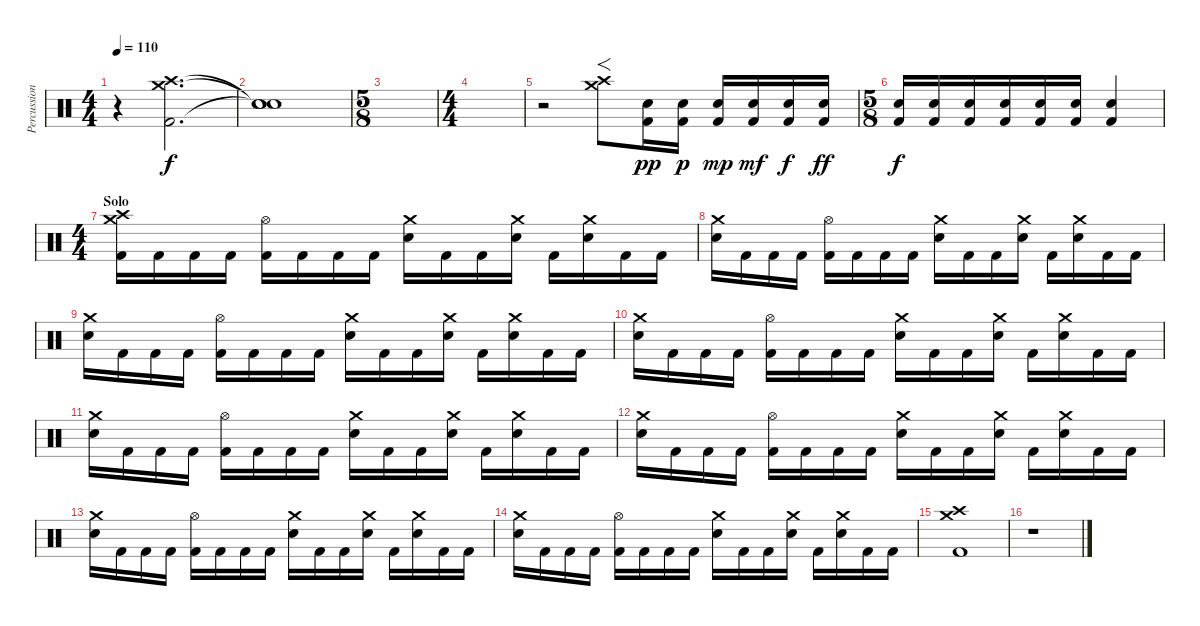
\track ("Percussion" "Percussion") {instrument percussion}
\staff {score}
\articulation defaults
\ts (4 4)
\tempo 110
\clef neutral
\ks c
r.4{dy f} ("Crash high (hit)" "Crash medium (hit)" "Kick (hit) 2").2{d} |
("Snare (hit)"{t} "Snare (hit)"{t} "Snare (hit)"{t}).1 |
\ts (5 8)
|
\ts (4 4)
|
r.2 ("Crash medium (hit)" "Crash high (hit)").8{f} ("Electric Snare (hit)" "Kick (hit) 2").16{dy pp} ("Electric Snare (hit)" "Kick (hit) 2").16{dy p} ("Electric Snare (hit)" "Kick (hit) 2").16{dy mp} ("Electric Snare (hit)" "Kick (hit) 2").16{dy mf} ("Electric Snare (hit)" "Kick (hit) 2").16{dy f} ("Electric Snare (hit)" "Kick (hit) 2").16{dy ff} |
\ts (5 8)
("Electric Snare (hit)" "Kick (hit) 2").16{dy f} ("Electric Snare (hit)" "Kick (hit) 2").16 ("Electric Snare (hit)" "Kick (hit) 2").16 ("Electric Snare (hit)" "Kick (hit) 2").16 ("Electric Snare (hit)" "Kick (hit) 2").16 ("Electric Snare (hit)" "Kick (hit) 2").16 ("Electric Snare (hit)" "Kick (hit) 2").4 |
\ts (4 4)
\section ("" "Solo")
("Crash medium (hit)" "Crash high (hit)" "Kick (hit) 2").16 "Kick (hit) 2".16 "Kick (hit) 2".16 "Kick (hit) 2".16 ("Hi-Hat (open)" "Kick (hit) 2").16 "Kick (hit) 2".16 "Kick (hit) 2".16 "Kick (hit) 2".16 ("Crash medium (hit)" "Electric Snare (hit)").16 "Kick (hit) 2".16 "Kick (hit) 2".16 ("Crash medium (hit)" "Electric Snare (hit)").16 "Kick (hit) 2".16 ("Crash medium (hit)" "Electric Snare (hit)").16 "Kick (hit) 2".16 "Kick (hit) 2".16 |
("Crash medium (hit)" "Electric Snare (hit)").16 "Kick (hit) 2".16 "Kick (hit) 2".16 "Kick (hit) 2".16 ("Hi-Hat (open)" "Kick (hit) 2").16 "Kick (hit) 2".16 "Kick (hit) 2".16 "Kick (hit) 2".16 ("Crash medium (hit)" "Electric Snare (hit)").16 "Kick (hit) 2".16 "Kick (hit) 2".16 ("Crash medium (hit)" "Electric Snare (hit)").16 "Kick (hit) 2".16 ("Crash medium (hit)" "Electric Snare (hit)").16 "Kick (hit) 2".16 "Kick (hit) 2".16 |
("Crash medium (hit)" "Electric Snare (hit)").16 "Kick (hit) 2".16 "Kick (hit) 2".16 "Kick (hit) 2".16 ("Hi-Hat (open)" "Kick (hit) 2").16 "Kick (hit) 2".16 "Kick (hit) 2".16 "Kick (hit) 2".16 ("Crash medium (hit)" "Electric Snare (hit)").16 "Kick (hit) 2".16 "Kick (hit) 2".16 ("Crash medium (hit)" "Electric Snare (hit)").16 "Kick (hit) 2".16 ("Crash medium (hit)" "Electric Snare (hit)").16 "Kick (hit) 2".16 "Kick (hit) 2".16 |
("Crash medium (hit)" "Electric Snare (hit)").16 "Kick (hit) 2".16 "Kick (hit) 2".16 "Kick (hit) 2".16 ("Hi-Hat (open)" "Kick (hit) 2").16 "Kick (hit) 2".16 "Kick (hit) 2".16 "Kick (hit) 2".16 ("Crash medium (hit)" "Electric Snare (hit)").16 "Kick (hit) 2".16 "Kick (hit) 2".16 ("Crash medium (hit)" "Electric Snare (hit)").16 "Kick (hit) 2".16 ("Crash medium (hit)" "Electric Snare (hit)").16 "Kick (hit) 2".16 "Kick (hit) 2".16 |
("Crash medium (hit)" "Electric Snare (hit)").16 "Kick (hit) 2".16 "Kick (hit) 2".16 "Kick (hit) 2".16 ("Hi-Hat (open)" "Kick (hit) 2").16 "Kick (hit) 2".16 "Kick (hit) 2".16 "Kick (hit) 2".16 ("Crash medium (hit)" "Electric Snare (hit)").16 "Kick (hit) 2".16 "Kick (hit) 2".16 ("Crash medium (hit)" "Electric Snare (hit)").16 "Kick (hit) 2".16 ("Crash medium (hit)" "Electric Snare (hit)").16 "Kick (hit) 2".16 "Kick (hit) 2".16 |
("Crash medium (hit)" "Electric Snare (hit)").16 "Kick (hit) 2".16 "Kick (hit) 2".16 "Kick (hit) 2".16 ("Hi-Hat (open)" "Kick (hit) 2").16 "Kick (hit) 2".16 "Kick (hit) 2".16 "Kick (hit) 2".16 ("Crash medium (hit)" "Electric Snare (hit)").16 "Kick (hit) 2".16 "Kick (hit) 2".16 ("Crash medium (hit)" "Electric Snare (hit)").16 "Kick (hit) 2".16 ("Crash medium (hit)" "Electric Snare (hit)").16 "Kick (hit) 2".16 "Kick (hit) 2".16 |
("Crash medium (hit)" "Electric Snare (hit)").16 "Kick (hit) 2".16 "Kick (hit) 2".16 "Kick (hit) 2".16 ("Hi-Hat (open)" "Kick (hit) 2").16 "Kick (hit) 2".16 "Kick (hit) 2".16 "Kick (hit) 2".16 ("Crash medium (hit)" "Electric Snare (hit)").16 "Kick (hit) 2".16 "Kick (hit) 2".16 ("Crash medium (hit)" "Electric Snare (hit)").16 "Kick (hit) 2".16 ("Crash medium (hit)" "Electric Snare (hit)").16 "Kick (hit) 2".16 "Kick (hit) 2".16 |
("Crash medium (hit)" "Electric Snare (hit)").16 "Kick (hit) 2".16 "Kick (hit) 2".16 "Kick (hit) 2".16 ("Hi-Hat (open)" "Kick (hit) 2").16 "Kick (hit) 2".16 "Kick (hit) 2".16 "Kick (hit) 2".16 ("Crash medium (hit)" "Electric Snare (hit)").16 "Kick (hit) 2".16 "Kick (hit) 2".16 ("Crash medium (hit)" "Electric Snare (hit)").16 "Kick (hit) 2".16 ("Crash medium (hit)" "Electric Snare (hit)").16 "Kick (hit) 2".16 "Kick (hit) 2".16 |
("Crash high (hit)" "Crash medium (hit)" "Kick (hit) 2").1 |
r.1
